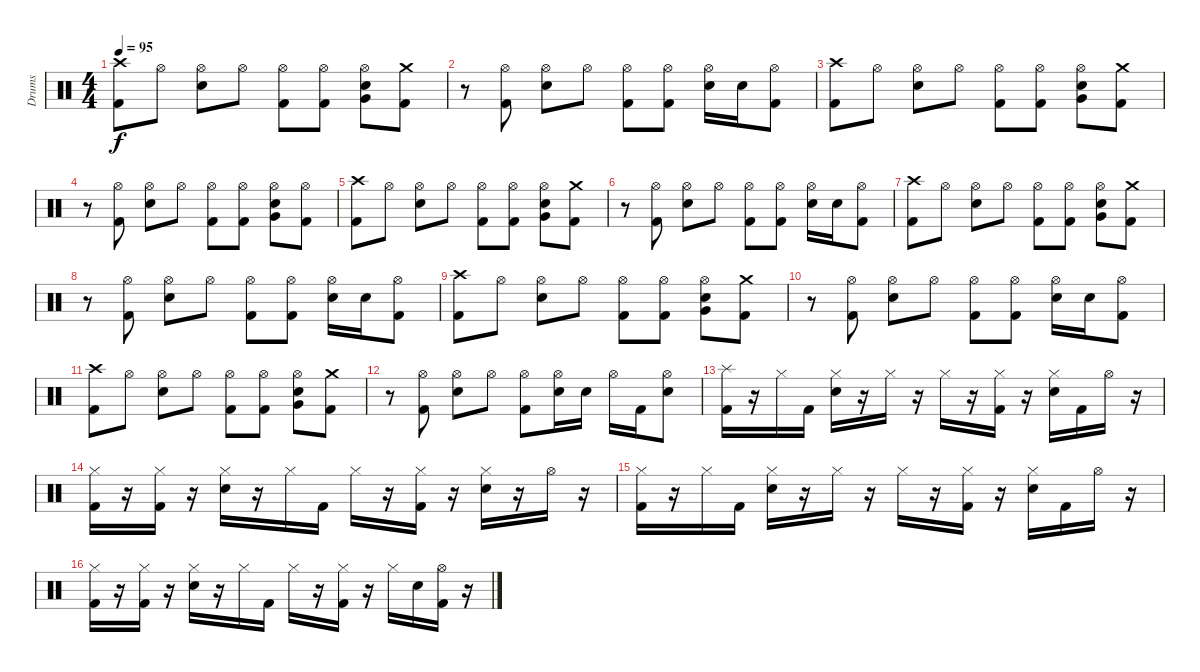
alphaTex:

\track ("Drums" "Drums") {instrument percussion}
\staff {score}
\articulation defaults
\ts (4 4)
\tempo 95
\clef neutral
\ks c
("Crash high (hit)" "Kick (hit) 2").8{dy f} "Hi-Hat (open)".8 ("Hi-Hat (open)" "Electric Snare (hit)").8 "Hi-Hat (open)".8 ("Hi-Hat (open)" "Kick (hit) 2").8 ("Hi-Hat (open)" "Kick (hit) 2").8 ("Hi-Hat (open)" "Electric Snare (hit)" "Very Low Tom (hit)").8 ("Crash medium (hit)" "Kick (hit) 2").8 |
r.8 ("Hi-Hat (open)" "Kick (hit) 2").8 ("Hi-Hat (open)" "Electric Snare (hit)").8 "Hi-Hat (open)".8 ("Hi-Hat (open)" "Kick (hit) 2").8 ("Hi-Hat (open)" "Kick (hit) 2").8 ("Hi-Hat (open)" "Electric Snare (hit)").16 "Electric Snare (hit)".16 ("Hi-Hat (open)" "Kick (hit) 2").8 |
("Crash high (hit)" "Kick (hit) 2").8 "Hi-Hat (open)".8 ("Hi-Hat (open)" "Electric Snare (hit)").8 "Hi-Hat (open)".8 ("Hi-Hat (open)" "Kick (hit) 2").8 ("Hi-Hat (open)" "Kick (hit) 2").8 ("Hi-Hat (open)" "Electric Snare (hit)" "Very Low Tom (hit)").8 ("Crash medium (hit)" "Kick (hit) 2").8 |
r.8 ("Hi-Hat (open)" "Kick (hit) 2").8 ("Hi-Hat (open)" "Electric Snare (hit)").8 "Hi-Hat (open)".8 ("Hi-Hat (open)" "Kick (hit) 2").8 ("Hi-Hat (open)" "Kick (hit) 2").8 ("Hi-Hat (open)" "Electric Snare (hit)" "Very Low Tom (hit)").8 ("Hi-Hat (open)" "Kick (hit) 2").8 |
("Crash high (hit)" "Kick (hit) 2").8 "Hi-Hat (open)".8 ("Hi-Hat (open)" "Electric Snare (hit)").8 "Hi-Hat (open)".8 ("Hi-Hat (open)" "Kick (hit) 2").8 ("Hi-Hat (open)" "Kick (hit) 2").8 ("Hi-Hat (open)" "Electric Snare (hit)" "Very Low Tom (hit)").8 ("Crash medium (hit)" "Kick (hit) 2").8 |
r.8 ("Hi-Hat (open)" "Kick (hit) 2").8 ("Hi-Hat (open)" "Electric Snare (hit)").8 "Hi-Hat (open)".8 ("Hi-Hat (open)" "Kick (hit) 2").8 ("Hi-Hat (open)" "Kick (hit) 2").8 ("Hi-Hat (open)" "Electric Snare (hit)").16 "Electric Snare (hit)".16 ("Hi-Hat (open)" "Kick (hit) 2").8 |
("Crash high (hit)" "Kick (hit) 2").8 "Hi-Hat (open)".8 ("Hi-Hat (open)" "Electric Snare (hit)").8 "Hi-Hat (open)".8 ("Hi-Hat (open)" "Kick (hit) 2").8 ("Hi-Hat (open)" "Kick (hit) 2").8 ("Hi-Hat (open)" "Electric Snare (hit)" "Very Low Tom (hit)").8 ("Crash medium (hit)" "Kick (hit) 2").8 |
r.8 ("Hi-Hat (open)" "Kick (hit) 2").8 ("Hi-Hat (open)" "Electric Snare (hit)").8 "Hi-Hat (open)".8 ("Hi-Hat (open)" "Kick (hit) 2").8 ("Hi-Hat (open)" "Kick (hit) 2").8 ("Hi-Hat (open)" "Electric Snare (hit)").16 "Electric Snare (hit)".16 ("Hi-Hat (open)" "Kick (hit) 2").8 |
("Crash high (hit)" "Kick (hit) 2").8 "Hi-Hat (open)".8 ("Hi-Hat (open)" "Electric Snare (hit)").8 "Hi-Hat (open)".8 ("Hi-Hat (open)" "Kick (hit) 2").8 ("Hi-Hat (open)" "Kick (hit) 2").8 ("Hi-Hat (open)" "Electric Snare (hit)" "Very Low Tom (hit)").8 ("Crash medium (hit)" "Kick (hit) 2").8 |
r.8 ("Hi-Hat (open)" "Kick (hit) 2").8 ("Hi-Hat (open)" "Electric Snare (hit)").8 "Hi-Hat (open)".8 ("Hi-Hat (open)" "Kick (hit) 2").8 ("Hi-Hat (open)" "Kick (hit) 2").8 ("Hi-Hat (open)" "Electric Snare (hit)").16 "Electric Snare (hit)".16 ("Hi-Hat (open)" "Kick (hit) 2").8 |
("Crash high (hit)" "Kick (hit) 2").8 "Hi-Hat (open)".8 ("Hi-Hat (open)" "Electric Snare (hit)").8 "Hi-Hat (open)".8 ("Hi-Hat (open)" "Kick (hit) 2").8 ("Hi-Hat (open)" "Kick (hit) 2").8 ("Hi-Hat (open)" "Electric Snare (hit)" "Very Low Tom (hit)").8 ("Crash medium (hit)" "Kick (hit) 2").8 |
r.8 ("Hi-Hat (open)" "Kick (hit) 2").8 ("Hi-Hat (open)" "Electric Snare (hit)").8 "Hi-Hat (open)".8 ("Hi-Hat (open)" "Kick (hit) 2").8 ("Hi-Hat (open)" "Electric Snare (hit)").16 "Electric Snare (hit)".16 "Hi-Hat (open)".16 "Kick (hit) 2".16 ("Hi-Hat (open)" "Electric Snare (hit)").8 |
("Splash (hit)" "Kick (hit) 2").16 r.16 "Hi-Hat (closed)".16 "Kick (hit) 2".16 ("Hi-Hat (closed)" "Electric Snare (hit)").16 r.16 "Hi-Hat (closed)".16 r.16 "Hi-Hat (closed)".16 r.16 ("Hi-Hat (closed)" "Kick (hit) 2").16 r.16 ("Hi-Hat (closed)" "Electric Snare (hit)").16 "Kick (hit) 2".16 "Hi-Hat (open)".16 r.16 |
("Hi-Hat (closed)" "Kick (hit) 2").16 r.16 ("Hi-Hat (closed)" "Kick (hit) 2").16 r.16 ("Hi-Hat (closed)" "Electric Snare (hit)").16 r.16 "Hi-Hat (closed)".16 "Kick (hit) 2".16 "Hi-Hat (closed)".16 r.16 ("Hi-Hat (closed)" "Kick (hit) 2").16 r.16 ("Hi-Hat (closed)" "Electric Snare (hit)").16 r.16 "Hi-Hat (open)".16 r.16 |
("Hi-Hat (closed)" "Kick (hit) 2").16 r.16 "Hi-Hat (closed)".16 "Kick (hit) 2".16 ("Hi-Hat (closed)" "Electric Snare (hit)").16 r.16 "Hi-Hat (closed)".16 r.16 "Hi-Hat (closed)".16 r.16 ("Hi-Hat (closed)" "Kick (hit) 2").16 r.16 ("Hi-Hat (closed)" "Electric Snare (hit)").16 "Kick (hit) 2".16 "Hi-Hat (open)".16 r.16 |
("Hi-Hat (closed)" "Kick (hit) 2").16 r.16 ("Hi-Hat (closed)" "Kick (hit) 2").16 r.16 ("Hi-Hat (closed)" "Electric Snare (hit)").16 r.16 "Hi-Hat (closed)".16 "Kick (hit) 2".16 "Hi-Hat (closed)".16 r.16 ("Hi-Hat (closed)" "Kick (hit) 2").16 r.16 "Hi-Hat (closed)".16 "Electric Snare (hit)".16 ("Hi-Hat (open)" "Kick (hit) 2").16 r.16
